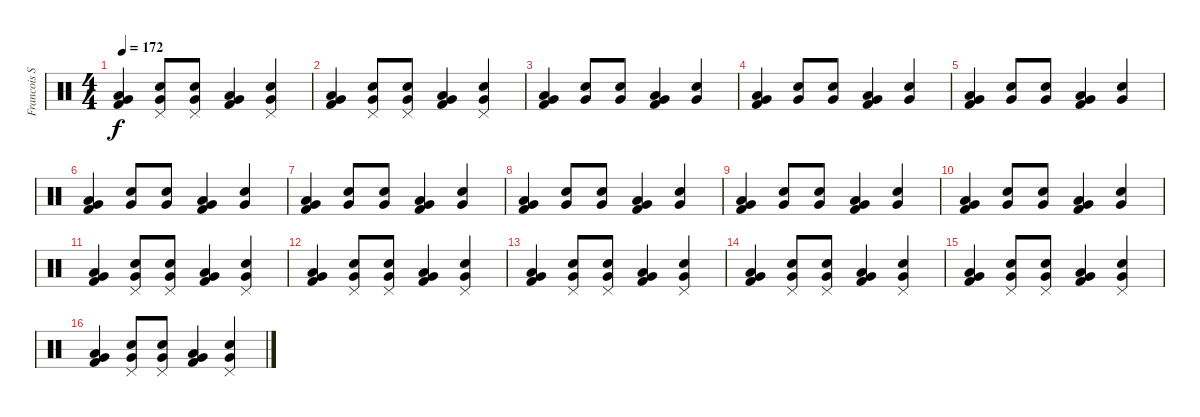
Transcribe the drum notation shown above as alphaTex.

\track ("Francois Soulier" "Francois S") {instrument percussion}
\staff {score}
\articulation defaults
\ts (4 4)
\tempo 172
\clef neutral
\ks c
("Kick (hit) 2" "Very Low Tom (hit)" "Low Floor Tom (hit)").4{dy f} ("Very Low Tom (hit)" "Electric Snare (hit)" "Pedal Hi-Hat (hit)").8 ("Very Low Tom (hit)" "Electric Snare (hit)" "Pedal Hi-Hat (hit)").8 ("Kick (hit) 2" "Very Low Tom (hit)" "Low Floor Tom (hit)").4 ("Very Low Tom (hit)" "Electric Snare (hit)" "Pedal Hi-Hat (hit)").4 |
("Kick (hit) 2" "Very Low Tom (hit)" "Low Floor Tom (hit)").4 ("Very Low Tom (hit)" "Electric Snare (hit)" "Pedal Hi-Hat (hit)").8 ("Very Low Tom (hit)" "Electric Snare (hit)" "Pedal Hi-Hat (hit)").8 ("Kick (hit) 2" "Very Low Tom (hit)" "Low Floor Tom (hit)").4 ("Very Low Tom (hit)" "Electric Snare (hit)" "Pedal Hi-Hat (hit)").4 |
("Kick (hit) 2" "Very Low Tom (hit)" "Low Floor Tom (hit)").4 ("Very Low Tom (hit)" "Electric Snare (hit)").8 ("Very Low Tom (hit)" "Electric Snare (hit)").8 ("Kick (hit) 2" "Very Low Tom (hit)" "Low Floor Tom (hit)").4 ("Very Low Tom (hit)" "Electric Snare (hit)").4 |
("Kick (hit) 2" "Very Low Tom (hit)" "Low Floor Tom (hit)").4 ("Very Low Tom (hit)" "Electric Snare (hit)").8 ("Very Low Tom (hit)" "Electric Snare (hit)").8 ("Kick (hit) 2" "Very Low Tom (hit)" "Low Floor Tom (hit)").4 ("Very Low Tom (hit)" "Electric Snare (hit)").4 |
("Kick (hit) 2" "Very Low Tom (hit)" "Low Floor Tom (hit)").4 ("Very Low Tom (hit)" "Electric Snare (hit)").8 ("Very Low Tom (hit)" "Electric Snare (hit)").8 ("Kick (hit) 2" "Very Low Tom (hit)" "Low Floor Tom (hit)").4 ("Very Low Tom (hit)" "Electric Snare (hit)").4 |
("Kick (hit) 2" "Very Low Tom (hit)" "Low Floor Tom (hit)").4 ("Very Low Tom (hit)" "Electric Snare (hit)").8 ("Very Low Tom (hit)" "Electric Snare (hit)").8 ("Kick (hit) 2" "Very Low Tom (hit)" "Low Floor Tom (hit)").4 ("Very Low Tom (hit)" "Electric Snare (hit)").4 |
("Kick (hit) 2" "Very Low Tom (hit)" "Low Floor Tom (hit)").4 ("Very Low Tom (hit)" "Electric Snare (hit)").8 ("Very Low Tom (hit)" "Electric Snare (hit)").8 ("Kick (hit) 2" "Very Low Tom (hit)" "Low Floor Tom (hit)").4 ("Very Low Tom (hit)" "Electric Snare (hit)").4 |
("Kick (hit) 2" "Very Low Tom (hit)" "Low Floor Tom (hit)").4 ("Very Low Tom (hit)" "Electric Snare (hit)").8 ("Very Low Tom (hit)" "Electric Snare (hit)").8 ("Kick (hit) 2" "Very Low Tom (hit)" "Low Floor Tom (hit)").4 ("Very Low Tom (hit)" "Electric Snare (hit)").4 |
("Kick (hit) 2" "Very Low Tom (hit)" "Low Floor Tom (hit)").4 ("Very Low Tom (hit)" "Electric Snare (hit)").8 ("Very Low Tom (hit)" "Electric Snare (hit)").8 ("Kick (hit) 2" "Very Low Tom (hit)" "Low Floor Tom (hit)").4 ("Very Low Tom (hit)" "Electric Snare (hit)").4 |
("Kick (hit) 2" "Very Low Tom (hit)" "Low Floor Tom (hit)").4 ("Very Low Tom (hit)" "Electric Snare (hit)").8 ("Very Low Tom (hit)" "Electric Snare (hit)").8 ("Kick (hit) 2" "Very Low Tom (hit)" "Low Floor Tom (hit)").4 ("Very Low Tom (hit)" "Electric Snare (hit)").4 |
("Kick (hit) 2" "Very Low Tom (hit)" "Low Floor Tom (hit)").4 ("Very Low Tom (hit)" "Electric Snare (hit)" "Pedal Hi-Hat (hit)").8 ("Very Low Tom (hit)" "Electric Snare (hit)" "Pedal Hi-Hat (hit)").8 ("Kick (hit) 2" "Very Low Tom (hit)" "Low Floor Tom (hit)").4 ("Very Low Tom (hit)" "Electric Snare (hit)" "Pedal Hi-Hat (hit)").4 |
("Kick (hit) 2" "Very Low Tom (hit)" "Low Floor Tom (hit)").4 ("Very Low Tom (hit)" "Electric Snare (hit)" "Pedal Hi-Hat (hit)").8 ("Very Low Tom (hit)" "Electric Snare (hit)" "Pedal Hi-Hat (hit)").8 ("Kick (hit) 2" "Very Low Tom (hit)" "Low Floor Tom (hit)").4 ("Very Low Tom (hit)" "Electric Snare (hit)" "Pedal Hi-Hat (hit)").4 |
("Kick (hit) 2" "Very Low Tom (hit)" "Low Floor Tom (hit)").4 ("Very Low Tom (hit)" "Electric Snare (hit)" "Pedal Hi-Hat (hit)").8 ("Very Low Tom (hit)" "Electric Snare (hit)" "Pedal Hi-Hat (hit)").8 ("Kick (hit) 2" "Very Low Tom (hit)" "Low Floor Tom (hit)").4 ("Very Low Tom (hit)" "Electric Snare (hit)" "Pedal Hi-Hat (hit)").4 |
("Kick (hit) 2" "Very Low Tom (hit)" "Low Floor Tom (hit)").4 ("Very Low Tom (hit)" "Electric Snare (hit)" "Pedal Hi-Hat (hit)").8 ("Very Low Tom (hit)" "Electric Snare (hit)" "Pedal Hi-Hat (hit)").8 ("Kick (hit) 2" "Very Low Tom (hit)" "Low Floor Tom (hit)").4 ("Very Low Tom (hit)" "Electric Snare (hit)" "Pedal Hi-Hat (hit)").4 |
("Kick (hit) 2" "Very Low Tom (hit)" "Low Floor Tom (hit)").4 ("Very Low Tom (hit)" "Electric Snare (hit)" "Pedal Hi-Hat (hit)").8 ("Very Low Tom (hit)" "Electric Snare (hit)" "Pedal Hi-Hat (hit)").8 ("Kick (hit) 2" "Very Low Tom (hit)" "Low Floor Tom (hit)").4 ("Very Low Tom (hit)" "Electric Snare (hit)" "Pedal Hi-Hat (hit)").4 |
("Kick (hit) 2" "Very Low Tom (hit)" "Low Floor Tom (hit)").4 ("Very Low Tom (hit)" "Electric Snare (hit)" "Pedal Hi-Hat (hit)").8 ("Very Low Tom (hit)" "Electric Snare (hit)" "Pedal Hi-Hat (hit)").8 ("Kick (hit) 2" "Very Low Tom (hit)" "Low Floor Tom (hit)").4 ("Very Low Tom (hit)" "Electric Snare (hit)" "Pedal Hi-Hat (hit)").4
